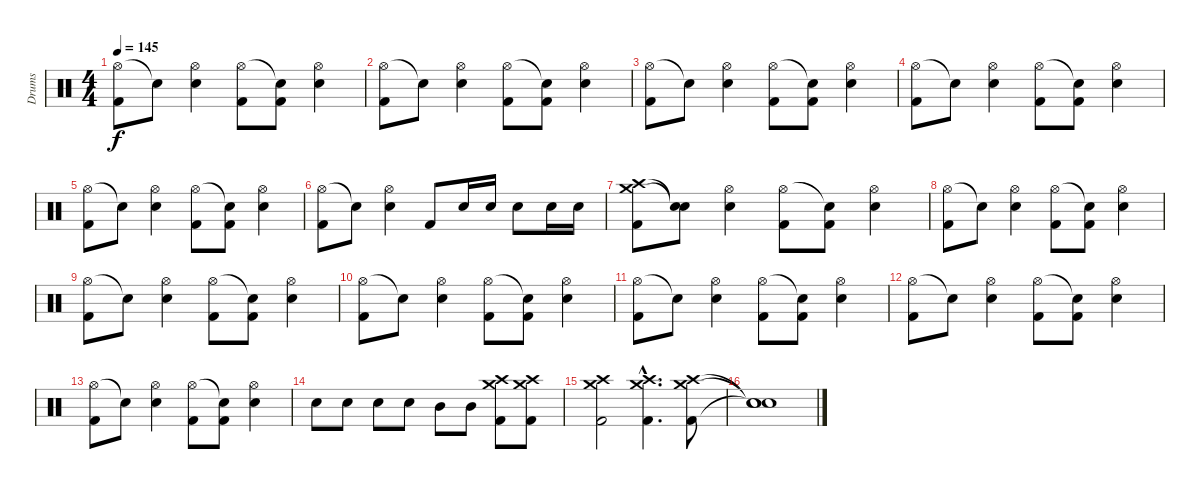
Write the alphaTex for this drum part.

\track ("Drums" "Drums") {instrument percussion}
\staff {score}
\articulation defaults
\ts (4 4)
\tempo 145
\clef neutral
\ks c
("Hi-Hat (open)" "Kick (hit) 2").8{dy f} "Snare (hit)"{t}.8 ("Hi-Hat (open)" "Electric Snare (hit)").4 ("Hi-Hat (open)" "Kick (hit) 2").8 ("Snare (hit)"{t} "Kick (hit) 2").8 ("Hi-Hat (open)" "Electric Snare (hit)").4 |
("Hi-Hat (open)" "Kick (hit) 2").8 "Snare (hit)"{t}.8 ("Hi-Hat (open)" "Electric Snare (hit)").4 ("Hi-Hat (open)" "Kick (hit) 2").8 ("Snare (hit)"{t} "Kick (hit) 2").8 ("Hi-Hat (open)" "Electric Snare (hit)").4 |
("Hi-Hat (open)" "Kick (hit) 2").8 "Snare (hit)"{t}.8 ("Hi-Hat (open)" "Electric Snare (hit)").4 ("Hi-Hat (open)" "Kick (hit) 2").8 ("Snare (hit)"{t} "Kick (hit) 2").8 ("Hi-Hat (open)" "Electric Snare (hit)").4 |
("Hi-Hat (open)" "Kick (hit) 2").8 "Snare (hit)"{t}.8 ("Hi-Hat (open)" "Electric Snare (hit)").4 ("Hi-Hat (open)" "Kick (hit) 2").8 ("Snare (hit)"{t} "Kick (hit) 2").8 ("Hi-Hat (open)" "Electric Snare (hit)").4 |
("Hi-Hat (open)" "Kick (hit) 2").8 "Snare (hit)"{t}.8 ("Hi-Hat (open)" "Electric Snare (hit)").4 ("Hi-Hat (open)" "Kick (hit) 2").8 ("Snare (hit)"{t} "Kick (hit) 2").8 ("Hi-Hat (open)" "Electric Snare (hit)").4 |
("Hi-Hat (open)" "Kick (hit) 2").8 "Snare (hit)"{t}.8 ("Hi-Hat (open)" "Electric Snare (hit)").4 "Kick (hit) 2".8 "Electric Snare (hit)".16 "Electric Snare (hit)".16 "Electric Snare (hit)".8 "Electric Snare (hit)".16 "Electric Snare (hit)".16 |
("Crash medium (hit)" "Crash high (hit)" "Kick (hit) 2").8 ("Snare (hit)"{t} "Snare (hit)"{t}).8 ("Hi-Hat (open)" "Electric Snare (hit)").4 ("Hi-Hat (open)" "Kick (hit) 2").8 ("Snare (hit)"{t} "Kick (hit) 2").8 ("Hi-Hat (open)" "Electric Snare (hit)").4 |
("Hi-Hat (open)" "Kick (hit) 2").8 "Snare (hit)"{t}.8 ("Hi-Hat (open)" "Electric Snare (hit)").4 ("Hi-Hat (open)" "Kick (hit) 2").8 ("Snare (hit)"{t} "Kick (hit) 2").8 ("Hi-Hat (open)" "Electric Snare (hit)").4 |
("Hi-Hat (open)" "Kick (hit) 2").8 "Snare (hit)"{t}.8 ("Hi-Hat (open)" "Electric Snare (hit)").4 ("Hi-Hat (open)" "Kick (hit) 2").8 ("Snare (hit)"{t} "Kick (hit) 2").8 ("Hi-Hat (open)" "Electric Snare (hit)").4 |
("Hi-Hat (open)" "Kick (hit) 2").8 "Snare (hit)"{t}.8 ("Hi-Hat (open)" "Electric Snare (hit)").4 ("Hi-Hat (open)" "Kick (hit) 2").8 ("Snare (hit)"{t} "Kick (hit) 2").8 ("Hi-Hat (open)" "Electric Snare (hit)").4 |
("Hi-Hat (open)" "Kick (hit) 2").8 "Snare (hit)"{t}.8 ("Hi-Hat (open)" "Electric Snare (hit)").4 ("Hi-Hat (open)" "Kick (hit) 2").8 ("Snare (hit)"{t} "Kick (hit) 2").8 ("Hi-Hat (open)" "Electric Snare (hit)").4 |
("Hi-Hat (open)" "Kick (hit) 2").8 "Snare (hit)"{t}.8 ("Hi-Hat (open)" "Electric Snare (hit)").4 ("Hi-Hat (open)" "Kick (hit) 2").8 ("Snare (hit)"{t} "Kick (hit) 2").8 ("Hi-Hat (open)" "Electric Snare (hit)").4 |
("Hi-Hat (open)" "Kick (hit) 2").8 "Snare (hit)"{t}.8 ("Hi-Hat (open)" "Electric Snare (hit)").4 ("Hi-Hat (open)" "Kick (hit) 2").8 ("Snare (hit)"{t} "Kick (hit) 2").8 ("Hi-Hat (open)" "Electric Snare (hit)").4 |
"Electric Snare (hit)".8 "Electric Snare (hit)".8 "Electric Snare (hit)".8 "Electric Snare (hit)".8 "Mid Tom (hit)".8 "Mid Tom (hit)".8 ("Crash high (hit)" "Crash medium (hit)" "Kick (hit) 2").8 ("Crash high (hit)" "Crash medium (hit)" "Kick (hit) 2").8 |
("Crash high (hit)" "Crash medium (hit)" "Kick (hit) 2").2 ("Crash high (hit)"{hac} "Crash medium (hit)"{hac} "Kick (hit) 2"{hac}).4{d} ("Crash high (hit)" "Crash medium (hit)" "Kick (hit) 2").8 |
("Snare (hit)"{t} "Snare (hit)"{t} "Snare (hit)"{t}).1
